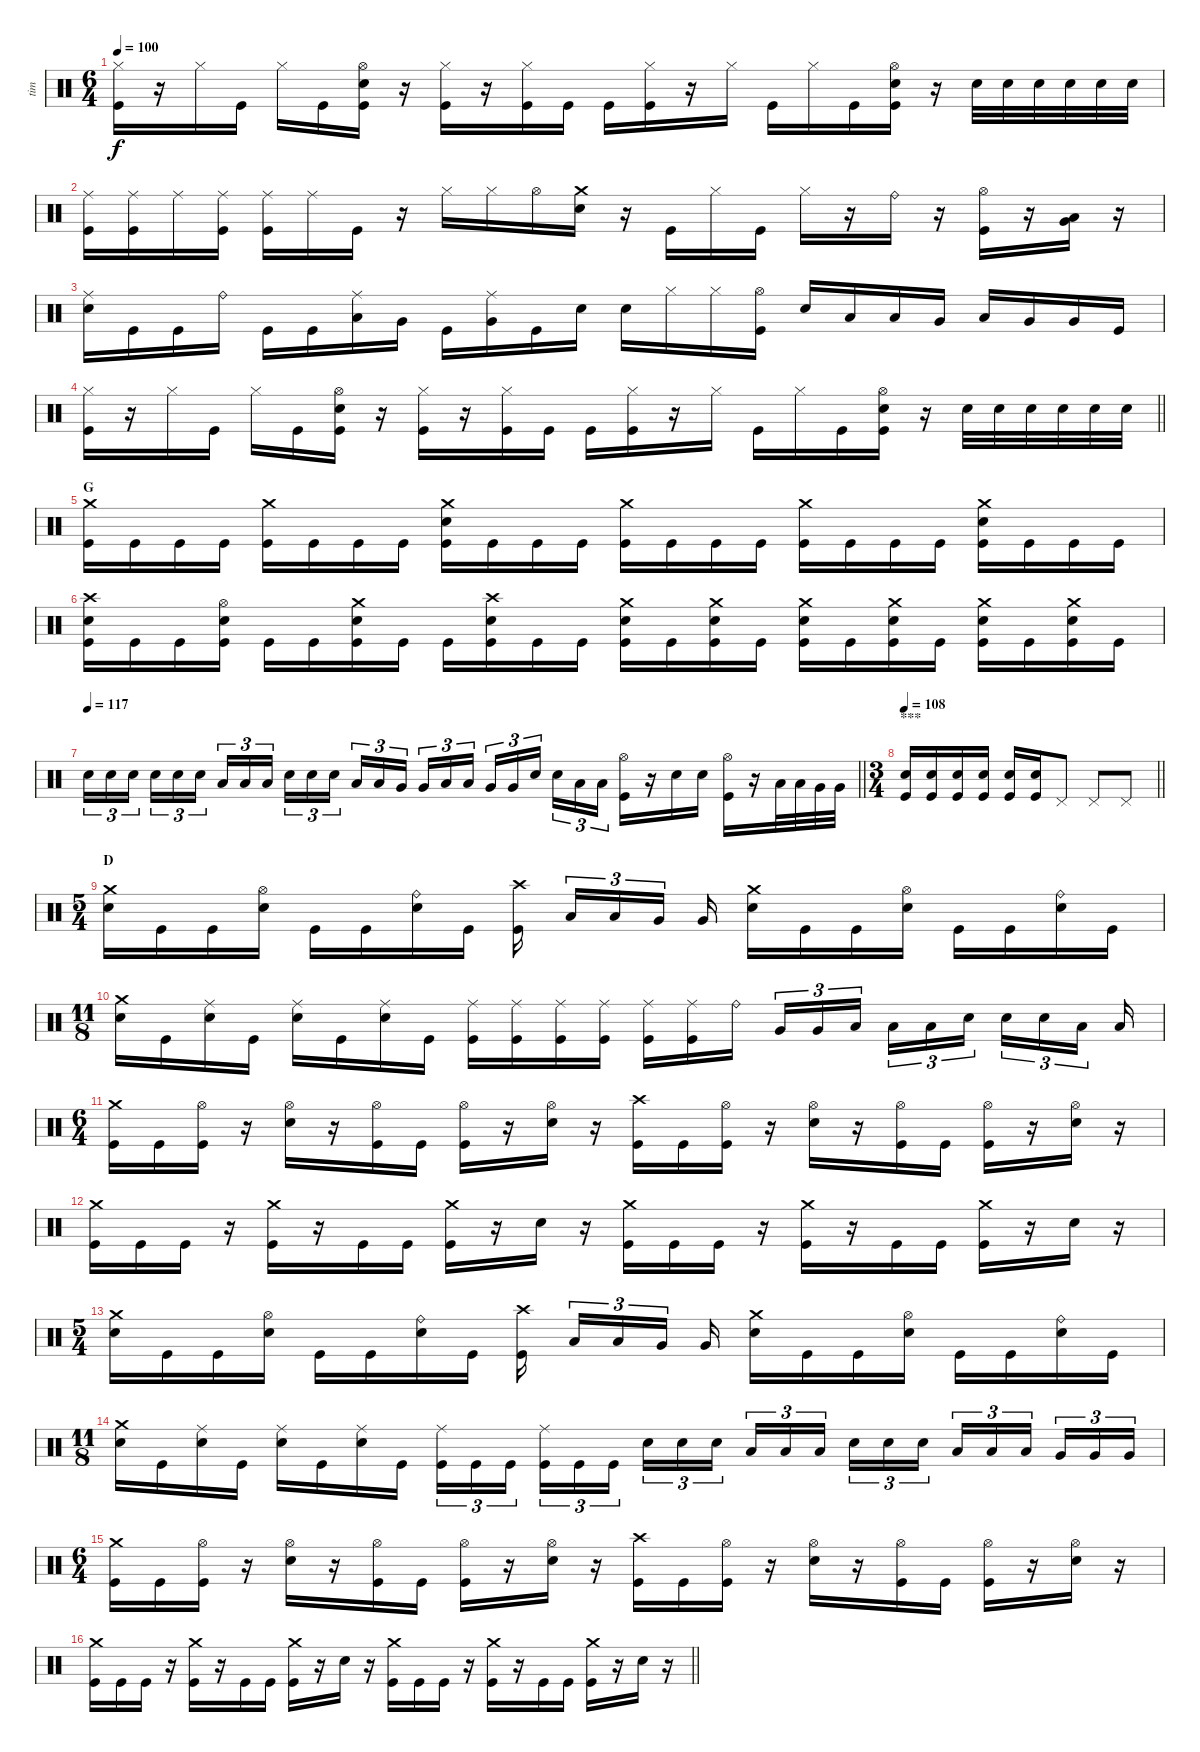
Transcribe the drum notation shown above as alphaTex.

\track ("tim" "tim") {instrument percussion}
\staff {score}
\articulation defaults
\ts (6 4)
\tempo 100
\clef neutral
\ks c
("Hi-Hat (closed)" "Kick (hit)").16{dy f} r.16 "Hi-Hat (closed)".16 "Kick (hit)".16 "Hi-Hat (closed)".16 "Kick (hit)".16 ("Hi-Hat (open)" "Snare (hit) 2" "Kick (hit)").16 r.16 ("Hi-Hat (closed)" "Kick (hit)").16 r.16 ("Hi-Hat (closed)" "Kick (hit)").16 "Kick (hit)".16 "Kick (hit)".16 ("Hi-Hat (closed)" "Kick (hit)").16 r.16 "Hi-Hat (closed)".16 "Kick (hit)".16 "Hi-Hat (closed)".16 "Kick (hit)".16 ("Hi-Hat (open)" "Snare (hit) 2" "Kick (hit)").16 r.16 "Snare (hit) 2".32 "Snare (hit) 2".32 "Snare (hit) 2".32 "Snare (hit) 2".32 "Snare (hit) 2".32 "Snare (hit) 2".32 |
("Ride (middle)" "Kick (hit)").16 ("Ride (middle)" "Kick (hit)").16 "Ride (middle)".16 ("Ride (middle)" "Kick (hit)").16 ("Ride (middle)" "Kick (hit)").16 "Ride (middle)".16 "Kick (hit)".16 r.16 "Hi-Hat (closed)".16 "Hi-Hat (closed)".16 "Hi-Hat (open)".16 ("Crash medium (hit)" "Snare (hit) 2").16 r.16 "Kick (hit)".16 "Hi-Hat (closed)".16 "Kick (hit)".16 "Hi-Hat (closed)".16 r.16 "Ride (bell)".16 r.16 ("Hi-Hat (open)" "Kick (hit)").16 r.16 ("Low Tom (hit)" "Very Low Tom (hit)").16 r.16 |
("Ride (middle)" "Snare (hit) 2").16 "Kick (hit)".16 "Kick (hit)".16 "Ride (bell)".16 "Kick (hit)".16 "Kick (hit)".16 ("Ride (middle)" "Low Tom (hit)").16 "Very Low Tom (hit)".16 "Kick (hit)".16 ("Ride (middle)" "Very Low Tom (hit)").16 "Kick (hit)".16 "Snare (hit) 2".16 "Snare (hit) 2".16 "Hi-Hat (closed)".16 "Hi-Hat (closed)".16 ("Hi-Hat (open)" "Kick (hit)").16 "Snare (hit) 2".16 "Low Tom (hit)".16 "Low Tom (hit)".16 "Very Low Tom (hit)".16 "Low Tom (hit)".16 "Very Low Tom (hit)".16 "Very Low Tom (hit)".16 "Kick (hit)".16 |
\barLineRight lightlight
("Hi-Hat (closed)" "Kick (hit)").16 r.16 "Hi-Hat (closed)".16 "Kick (hit)".16 "Hi-Hat (closed)".16 "Kick (hit)".16 ("Hi-Hat (open)" "Snare (hit) 2" "Kick (hit)").16 r.16 ("Hi-Hat (closed)" "Kick (hit)").16 r.16 ("Hi-Hat (closed)" "Kick (hit)").16 "Kick (hit)".16 "Kick (hit)".16 ("Hi-Hat (closed)" "Kick (hit)").16 r.16 "Hi-Hat (closed)".16 "Kick (hit)".16 "Hi-Hat (closed)".16 "Kick (hit)".16 ("Hi-Hat (open)" "Snare (hit) 2" "Kick (hit)").16 r.16 "Snare (hit) 2".32 "Snare (hit) 2".32 "Snare (hit) 2".32 "Snare (hit) 2".32 "Snare (hit) 2".32 "Snare (hit) 2".32 |
\section ("" "G")
("Crash medium (hit)" "Kick (hit)").16 "Kick (hit)".16 "Kick (hit)".16 "Kick (hit)".16 ("Crash medium (hit)" "Kick (hit)").16 "Kick (hit)".16 "Kick (hit)".16 "Kick (hit)".16 ("Crash medium (hit)" "Snare (hit) 2" "Kick (hit)").16 "Kick (hit)".16 "Kick (hit)".16 "Kick (hit)".16 ("Crash medium (hit)" "Kick (hit)").16 "Kick (hit)".16 "Kick (hit)".16 "Kick (hit)".16 ("Crash medium (hit)" "Kick (hit)").16 "Kick (hit)".16 "Kick (hit)".16 "Kick (hit)".16 ("Crash medium (hit)" "Snare (hit) 2" "Kick (hit)").16 "Kick (hit)".16 "Kick (hit)".16 "Kick (hit)".16 |
("Crash high (hit)" "Snare (hit) 2" "Kick (hit)").16 "Kick (hit)".16 "Kick (hit)".16 ("Hi-Hat (open)" "Snare (hit) 2" "Kick (hit)").16 "Kick (hit)".16 "Kick (hit)".16 ("Crash medium (hit)" "Snare (hit) 2" "Kick (hit)").16 "Kick (hit)".16 "Kick (hit)".16 ("Crash high (hit)" "Snare (hit) 2" "Kick (hit)").16 "Kick (hit)".16 "Kick (hit)".16 ("Crash medium (hit)" "Snare (hit) 2" "Kick (hit)").16 "Kick (hit)".16 ("Crash medium (hit)" "Snare (hit) 2" "Kick (hit)").16 "Kick (hit)".16 ("Crash medium (hit)" "Snare (hit) 2" "Kick (hit)").16 "Kick (hit)".16 ("Crash medium (hit)" "Snare (hit) 2" "Kick (hit)").16 "Kick (hit)".16 ("Crash medium (hit)" "Snare (hit) 2" "Kick (hit)").16 "Kick (hit)".16 ("Crash medium (hit)" "Snare (hit) 2" "Kick (hit)").16 "Kick (hit)".16 |
\tempo 117
\barLineRight lightlight "Snare (hit) 2".16{tu (3 2)} "Snare (hit) 2".16{tu (3 2)} "Snare (hit) 2".16{tu (3 2) beam splitsecondary} "Snare (hit) 2".16{tu (3 2)} "Snare (hit) 2".16{tu (3 2)} "Snare (hit) 2".16{tu (3 2) beam splitsecondary} "Low Tom (hit)".16{tu (3 2)} "Low Tom (hit)".16{tu (3 2)} "Low Tom (hit)".16{tu (3 2) beam splitsecondary} "Snare (hit) 2".16{tu (3 2)} "Snare (hit) 2".16{tu (3 2)} "Snare (hit) 2".16{tu (3 2) beam splitsecondary} "Low Tom (hit)".16{tu (3 2)} "Low Tom (hit)".16{tu (3 2)} "Very Low Tom (hit)".16{tu (3 2) beam splitsecondary} "Very Low Tom (hit)".16{tu (3 2)} "Low Tom (hit)".16{tu (3 2)} "Low Tom (hit)".16{tu (3 2)} "Very Low Tom (hit)".16{tu (3 2)} "Very Low Tom (hit)".16{tu (3 2)} "Snare (hit) 2".16{tu (3 2) beam splitsecondary} "Snare (hit) 2".16{tu (3 2)} "Low Tom (hit)".16{tu (3 2)} "Low Tom (hit)".16{tu (3 2) beam splitsecondary}
("Hi-Hat (open)" "Kick (hit)").16 r.16 "Snare (hit) 2".16 "Snare (hit) 2".16 ("Hi-Hat (open)" "Kick (hit)").16 r.16 "Low Tom (hit)".32 "Low Tom (hit)".32 "Very Low Tom (hit)".32 "Very Low Tom (hit)".32 |
\ts (3 4)
\section ("" "***")
\tempo 108
\barLineRight lightlight
("Snare (hit) 2" "Kick (hit)").16 ("Snare (hit) 2" "Kick (hit)").16 ("Snare (hit) 2" "Kick (hit)").16 ("Snare (hit) 2" "Kick (hit)").16 ("Snare (hit) 2" "Kick (hit)").16 ("Snare (hit) 2" "Kick (hit)").16 "Pedal Hi-Hat (hit)".8 "Pedal Hi-Hat (hit)".8 "Pedal Hi-Hat (hit)".8 |
\ts (5 4)
\section ("" "D")
("Crash medium (hit)" "Snare (hit) 2").16 "Kick (hit)".16 "Kick (hit)".16 ("Hi-Hat (open)" "Snare (hit) 2").16 "Kick (hit)".16 "Kick (hit)".16 ("Ride (bell)" "Snare (hit) 2").16 "Kick (hit)".16 ("Crash high (hit)" "Kick (hit)").16{beam splitsecondary} "Low Tom (hit)".16{tu (3 2)} "Low Tom (hit)".16{tu (3 2)} "Very Low Tom (hit)".16{tu (3 2) beam splitsecondary} "Very Low Tom (hit)".16 ("Crash medium (hit)" "Snare (hit) 2").16 "Kick (hit)".16 "Kick (hit)".16 ("Hi-Hat (open)" "Snare (hit) 2").16 "Kick (hit)".16 "Kick (hit)".16 ("Ride (bell)" "Snare (hit) 2").16 "Kick (hit)".16 |
\ts (11 8)
("Crash medium (hit)" "Snare (hit) 2").16 "Kick (hit)".16 ("Ride (middle)" "Snare (hit) 2").16 "Kick (hit)".16 ("Ride (middle)" "Snare (hit) 2").16 "Kick (hit)".16 ("Ride (middle)" "Snare (hit) 2").16 "Kick (hit)".16 ("Ride (middle)" "Kick (hit)").16 ("Ride (middle)" "Kick (hit)").16 ("Ride (middle)" "Kick (hit)").16 ("Ride (middle)" "Kick (hit)").16 ("Ride (middle)" "Kick (hit)").16 ("Ride (middle)" "Kick (hit)").16 "Ride (bell)".16{beam splitsecondary} "Very Low Tom (hit)".16{tu (3 2)} "Very Low Tom (hit)".16{tu (3 2)} "Low Tom (hit)".16{tu (3 2) beam splitsecondary} "Low Tom (hit)".16{tu (3 2)} "Low Tom (hit)".16{tu (3 2)} "Snare (hit) 2".16{tu (3 2) beam splitsecondary} "Snare (hit) 2".16{tu (3 2)} "Snare (hit) 2".16{tu (3 2)} "Low Tom (hit)".16{tu (3 2)} "Low Tom (hit)".16 |
\ts (6 4)
("Crash medium (hit)" "Kick (hit)").16 "Kick (hit)".16 ("Hi-Hat (open)" "Kick (hit)").16 r.16 ("Hi-Hat (open)" "Snare (hit) 2").16 r.16 ("Hi-Hat (open)" "Kick (hit)").16 "Kick (hit)".16 ("Hi-Hat (open)" "Kick (hit)").16 r.16 ("Hi-Hat (open)" "Snare (hit) 2").16 r.16 ("Crash high (hit)" "Kick (hit)").16 "Kick (hit)".16 ("Hi-Hat (open)" "Kick (hit)").16 r.16 ("Hi-Hat (open)" "Snare (hit) 2").16 r.16 ("Hi-Hat (open)" "Kick (hit)").16 "Kick (hit)".16 ("Hi-Hat (open)" "Kick (hit)").16 r.16 ("Hi-Hat (open)" "Snare (hit) 2").16 r.16 |
("Crash medium (hit)" "Kick (hit)").16 "Kick (hit)".16 "Kick (hit)".16 r.16 ("Crash medium (hit)" "Kick (hit)").16 r.16 "Kick (hit)".16 "Kick (hit)".16 ("Crash medium (hit)" "Kick (hit)").16 r.16 "Snare (hit) 2".16 r.16 ("Crash medium (hit)" "Kick (hit)").16 "Kick (hit)".16 "Kick (hit)".16 r.16 ("Crash medium (hit)" "Kick (hit)").16 r.16 "Kick (hit)".16 "Kick (hit)".16 ("Crash medium (hit)" "Kick (hit)").16 r.16 "Snare (hit) 2".16 r.16 |
\ts (5 4)
("Crash medium (hit)" "Snare (hit) 2").16 "Kick (hit)".16 "Kick (hit)".16 ("Hi-Hat (open)" "Snare (hit) 2").16 "Kick (hit)".16 "Kick (hit)".16 ("Ride (bell)" "Snare (hit) 2").16 "Kick (hit)".16 ("Crash high (hit)" "Kick (hit)").16{beam splitsecondary} "Low Tom (hit)".16{tu (3 2)} "Low Tom (hit)".16{tu (3 2)} "Very Low Tom (hit)".16{tu (3 2) beam splitsecondary} "Very Low Tom (hit)".16 ("Crash medium (hit)" "Snare (hit) 2").16 "Kick (hit)".16 "Kick (hit)".16 ("Hi-Hat (open)" "Snare (hit) 2").16 "Kick (hit)".16 "Kick (hit)".16 ("Ride (bell)" "Snare (hit) 2").16 "Kick (hit)".16 |
\ts (11 8)
("Crash medium (hit)" "Snare (hit) 2").16 "Kick (hit)".16 ("Ride (middle)" "Snare (hit) 2").16 "Kick (hit)".16 ("Ride (middle)" "Snare (hit) 2").16 "Kick (hit)".16 ("Ride (middle)" "Snare (hit) 2").16 "Kick (hit)".16 ("Ride (middle)" "Kick (hit)").16{tu (3 2)} "Kick (hit)".16{tu (3 2)} "Kick (hit)".16{tu (3 2)} ("Ride (middle)" "Kick (hit)").16{tu (3 2)} "Kick (hit)".16{tu (3 2)} "Kick (hit)".16{tu (3 2)} "Snare (hit) 2".16{tu (3 2)} "Snare (hit) 2".16{tu (3 2)} "Snare (hit) 2".16{tu (3 2)} "Low Tom (hit)".16{tu (3 2)} "Low Tom (hit)".16{tu (3 2)} "Low Tom (hit)".16{tu (3 2)} "Snare (hit) 2".16{tu (3 2)} "Snare (hit) 2".16{tu (3 2)} "Snare (hit) 2".16{tu (3 2)} "Low Tom (hit)".16{tu (3 2)} "Low Tom (hit)".16{tu (3 2)} "Low Tom (hit)".16{tu (3 2)} "Very Low Tom (hit)".16{tu (3 2)} "Very Low Tom (hit)".16{tu (3 2)} "Very Low Tom (hit)".16{tu (3 2)} |
\ts (6 4)
("Crash medium (hit)" "Kick (hit)").16 "Kick (hit)".16 ("Hi-Hat (open)" "Kick (hit)").16 r.16 ("Hi-Hat (open)" "Snare (hit) 2").16 r.16 ("Hi-Hat (open)" "Kick (hit)").16 "Kick (hit)".16 ("Hi-Hat (open)" "Kick (hit)").16 r.16 ("Hi-Hat (open)" "Snare (hit) 2").16 r.16 ("Crash high (hit)" "Kick (hit)").16 "Kick (hit)".16 ("Hi-Hat (open)" "Kick (hit)").16 r.16 ("Hi-Hat (open)" "Snare (hit) 2").16 r.16 ("Hi-Hat (open)" "Kick (hit)").16 "Kick (hit)".16 ("Hi-Hat (open)" "Kick (hit)").16 r.16 ("Hi-Hat (open)" "Snare (hit) 2").16 r.16 |
\barLineRight lightlight
("Crash medium (hit)" "Kick (hit)").16 "Kick (hit)".16 "Kick (hit)".16 r.16 ("Crash medium (hit)" "Kick (hit)").16 r.16 "Kick (hit)".16 "Kick (hit)".16 ("Crash medium (hit)" "Kick (hit)").16 r.16 "Snare (hit) 2".16 r.16 ("Crash medium (hit)" "Kick (hit)").16 "Kick (hit)".16 "Kick (hit)".16 r.16 ("Crash medium (hit)" "Kick (hit)").16 r.16 "Kick (hit)".16 "Kick (hit)".16 ("Crash medium (hit)" "Kick (hit)").16 r.16 "Snare (hit) 2".16 r.16
